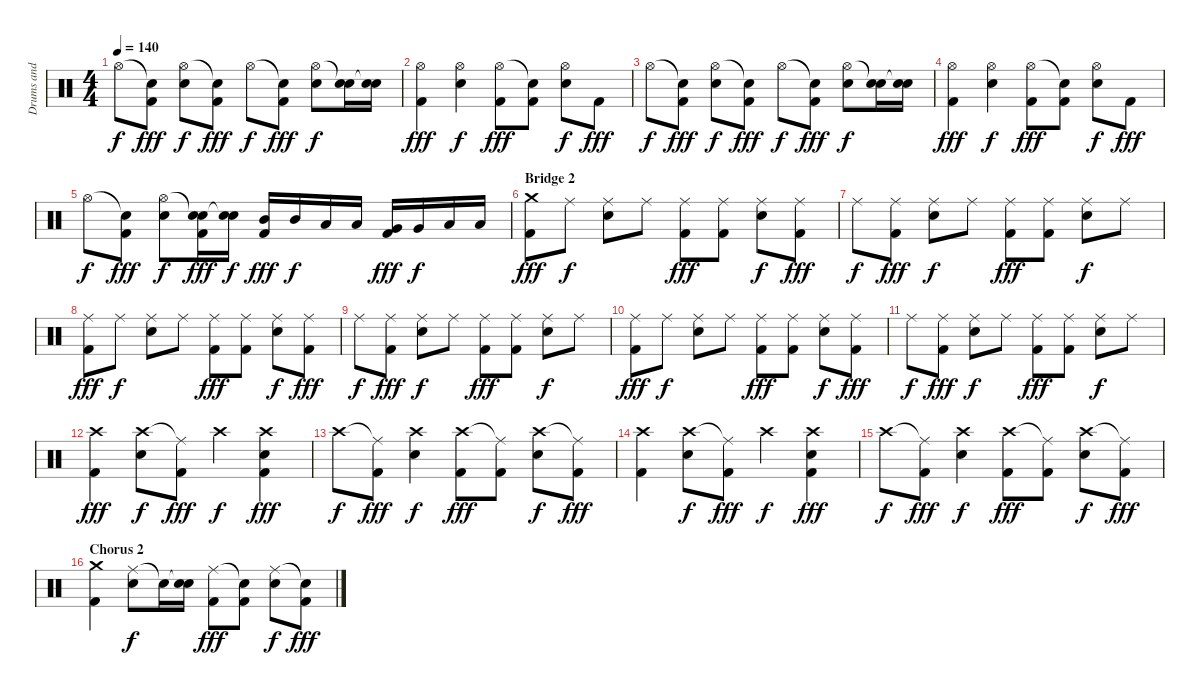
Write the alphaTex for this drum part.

\track ("Drums and Percussion" "Drums and ") {instrument percussion}
\staff {score}
\articulation defaults
\ts (4 4)
\tempo 140
\clef neutral
\ks c "Hi-Hat (open)".8{dy f}
("Snare (hit)"{t} "Kick (hit) 2").8{dy fff} ("Hi-Hat (open)" "Snare (hit) 2").8{dy f} ("Snare (hit)"{t} "Kick (hit) 2").8{dy fff} "Hi-Hat (open)".8{dy f} ("Snare (hit)"{t} "Kick (hit) 2").8{dy fff} ("Hi-Hat (open)" "Snare (hit) 2").8{dy f} ("Snare (hit)"{t} "Snare (hit) 2").16 ("Snare (hit)"{t} "Snare (hit) 2").16 |
("Hi-Hat (open)" "Kick (hit) 2").4{dy fff} ("Hi-Hat (open)" "Snare (hit) 2").4{dy f} ("Hi-Hat (open)" "Kick (hit) 2").8{dy fff} ("Snare (hit)"{t} "Kick (hit) 2").8 ("Hi-Hat (open)" "Snare (hit) 2").8{dy f} "Kick (hit) 2".8{dy fff} |
"Hi-Hat (open)".8{dy f} ("Snare (hit)"{t} "Kick (hit) 2").8{dy fff} ("Hi-Hat (open)" "Snare (hit) 2").8{dy f} ("Snare (hit)"{t} "Kick (hit) 2").8{dy fff} "Hi-Hat (open)".8{dy f} ("Snare (hit)"{t} "Kick (hit) 2").8{dy fff} ("Hi-Hat (open)" "Snare (hit) 2").8{dy f} ("Snare (hit)"{t} "Snare (hit) 2").16 ("Snare (hit)"{t} "Snare (hit) 2").16 |
("Hi-Hat (open)" "Kick (hit) 2").4{dy fff} ("Hi-Hat (open)" "Snare (hit) 2").4{dy f} ("Hi-Hat (open)" "Kick (hit) 2").8{dy fff} ("Snare (hit)"{t} "Kick (hit) 2").8 ("Hi-Hat (open)" "Snare (hit) 2").8{dy f} "Kick (hit) 2".8{dy fff} |
"Hi-Hat (open)".8{dy f} ("Snare (hit)"{t} "Kick (hit) 2").8{dy fff} ("Hi-Hat (open)" "Snare (hit) 2").8{dy f} ("Snare (hit)"{t} "Snare (hit) 2" "Kick (hit) 2").16{dy fff} ("Snare (hit)"{t} "Snare (hit) 2").16{dy f} ("Mid Tom (hit)" "Kick (hit) 2").16{dy fff} "Mid Tom (hit)".16{dy f} "Low Tom (hit)".16 "Low Tom (hit)".16 ("Very Low Tom (hit)" "Kick (hit) 2").16{dy fff} "Very Low Tom (hit)".16{dy f} "Low Floor Tom (hit)".16 "Low Floor Tom (hit)".16 |
\section ("" "Bridge 2")
("Crash medium (hit)" "Kick (hit) 2").8{dy fff} "Ride (middle)".8{dy f} ("Ride (middle)" "Snare (hit) 2").8 "Ride (middle)".8 ("Ride (middle)" "Kick (hit) 2").8{dy fff} ("Ride (middle)" "Kick (hit) 2").8 ("Ride (middle)" "Snare (hit) 2").8{dy f} ("Ride (middle)" "Kick (hit) 2").8{dy fff} |
"Ride (middle)".8{dy f} ("Ride (middle)" "Kick (hit) 2").8{dy fff} ("Ride (middle)" "Snare (hit) 2").8{dy f} "Ride (middle)".8 ("Ride (middle)" "Kick (hit) 2").8{dy fff} ("Ride (middle)" "Kick (hit) 2").8 ("Ride (middle)" "Snare (hit) 2").8{dy f} "Ride (middle)".8 |
("Ride (middle)" "Kick (hit) 2").8{dy fff} "Ride (middle)".8{dy f} ("Ride (middle)" "Snare (hit) 2").8 "Ride (middle)".8 ("Ride (middle)" "Kick (hit) 2").8{dy fff} ("Ride (middle)" "Kick (hit) 2").8 ("Ride (middle)" "Snare (hit) 2").8{dy f} ("Ride (middle)" "Kick (hit) 2").8{dy fff} |
"Ride (middle)".8{dy f} ("Ride (middle)" "Kick (hit) 2").8{dy fff} ("Ride (middle)" "Snare (hit) 2").8{dy f} "Ride (middle)".8 ("Ride (middle)" "Kick (hit) 2").8{dy fff} ("Ride (middle)" "Kick (hit) 2").8 ("Ride (middle)" "Snare (hit) 2").8{dy f} "Ride (middle)".8 |
("Ride (middle)" "Kick (hit) 2").8{dy fff} "Ride (middle)".8{dy f} ("Ride (middle)" "Snare (hit) 2").8 "Ride (middle)".8 ("Ride (middle)" "Kick (hit) 2").8{dy fff} ("Ride (middle)" "Kick (hit) 2").8 ("Ride (middle)" "Snare (hit) 2").8{dy f} ("Ride (middle)" "Kick (hit) 2").8{dy fff} |
"Ride (middle)".8{dy f} ("Ride (middle)" "Kick (hit) 2").8{dy fff} ("Ride (middle)" "Snare (hit) 2").8{dy f} "Ride (middle)".8 ("Ride (middle)" "Kick (hit) 2").8{dy fff} ("Ride (middle)" "Kick (hit) 2").8 ("Ride (middle)" "Snare (hit) 2").8{dy f} "Ride (middle)".8 |
("Crash high (hit)" "Kick (hit) 2").4{dy fff} ("Crash high (hit)" "Snare (hit) 2").8{dy f} ("Ride (middle)"{t} "Kick (hit) 2").8{dy fff} "Crash high (hit)".4{dy f} ("Crash high (hit)" "Snare (hit) 2" "Kick (hit) 2").4{dy fff} |
"Crash high (hit)".8{dy f} ("Ride (middle)"{t} "Kick (hit) 2").8{dy fff} ("Crash high (hit)" "Snare (hit) 2").4{dy f} ("Crash high (hit)" "Kick (hit) 2").8{dy fff} ("Ride (middle)"{t} "Kick (hit) 2").8 ("Crash high (hit)" "Snare (hit) 2").8{dy f} ("Ride (middle)"{t} "Kick (hit) 2").8{dy fff} |
("Crash high (hit)" "Kick (hit) 2").4 ("Crash high (hit)" "Snare (hit) 2").8{dy f} ("Ride (middle)"{t} "Kick (hit) 2").8{dy fff} "Crash high (hit)".4{dy f} ("Crash high (hit)" "Snare (hit) 2" "Kick (hit) 2").4{dy fff} |
"Crash high (hit)".8{dy f} ("Ride (middle)"{t} "Kick (hit) 2").8{dy fff} ("Crash high (hit)" "Snare (hit) 2").4{dy f} ("Crash high (hit)" "Kick (hit) 2").8{dy fff} ("Ride (middle)"{t} "Kick (hit) 2").8 ("Crash high (hit)" "Snare (hit) 2").8{dy f} ("Ride (middle)"{t} "Kick (hit) 2").8{dy fff} |
\section ("" "Chorus 2")
("Crash medium (hit)" "Kick (hit) 2").4 ("Ride (middle)" "Snare (hit) 2").8{dy f} "Snare (hit)"{t}.16 ("Snare (hit)"{t} "Snare (hit) 2").16 ("Ride (middle)" "Kick (hit) 2").8{dy fff} ("Snare (hit)"{t} "Kick (hit) 2").8 ("Ride (middle)" "Snare (hit) 2").8{dy f} ("Snare (hit)"{t} "Kick (hit) 2").8{dy fff}
